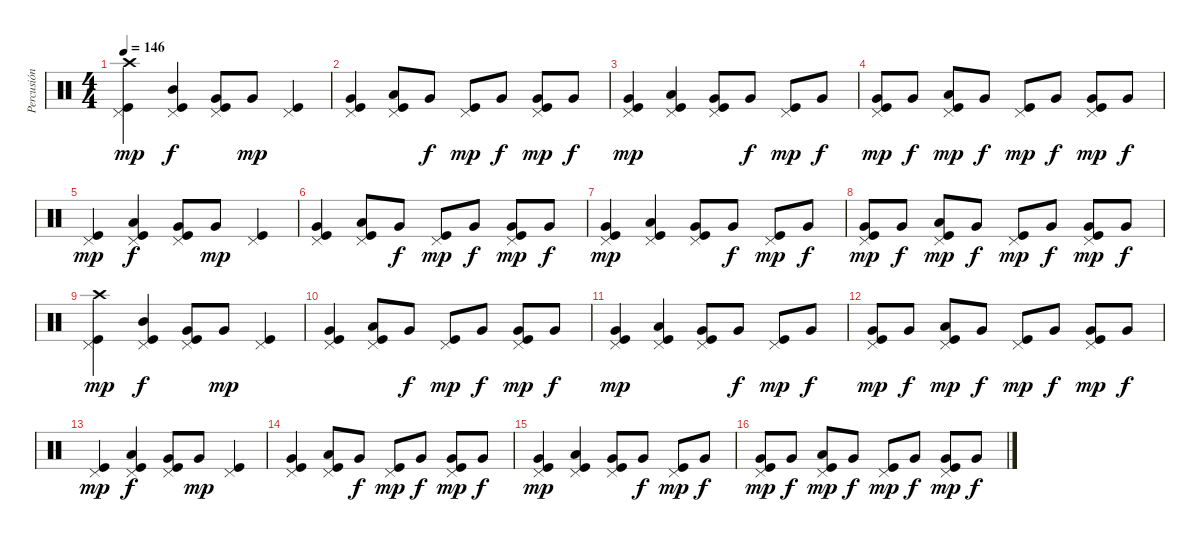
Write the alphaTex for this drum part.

\track ("Percusión" "Percusión") {instrument percussion}
\staff {score}
\articulation defaults
\ts (4 4)
\tempo 146
\clef neutral
\ks c
("Crash high (hit)" "Pedal Hi-Hat (hit)" "Kick (hit)").4{dy mp} ("Pedal Hi-Hat (hit)" "Mid Tom (hit)" "Kick (hit)").4{dy f} ("Pedal Hi-Hat (hit)" "Very Low Tom (hit)" "Kick (hit)").8 "Very Low Tom (hit)".8{dy mp} ("Pedal Hi-Hat (hit)" "Kick (hit)").4 |
("Pedal Hi-Hat (hit)" "Very Low Tom (hit)" "Kick (hit)").4 ("Pedal Hi-Hat (hit)" "Low Tom (hit)" "Kick (hit)").8 "Very Low Tom (hit)".8{dy f} ("Pedal Hi-Hat (hit)" "Kick (hit)").8{dy mp} "Very Low Tom (hit)".8{dy f} ("Pedal Hi-Hat (hit)" "Very Low Tom (hit)" "Kick (hit)").8{dy mp} "Very Low Tom (hit)".8{dy f} |
("Pedal Hi-Hat (hit)" "Very Low Tom (hit)" "Kick (hit)").4{dy mp} ("Pedal Hi-Hat (hit)" "Low Tom (hit)" "Kick (hit)").4 ("Pedal Hi-Hat (hit)" "Very Low Tom (hit)" "Kick (hit)").8 "Very Low Tom (hit)".8{dy f} ("Pedal Hi-Hat (hit)" "Kick (hit)").8{dy mp} "Very Low Tom (hit)".8{dy f} |
("Pedal Hi-Hat (hit)" "Very Low Tom (hit)" "Kick (hit)").8{dy mp} "Very Low Tom (hit)".8{dy f} ("Pedal Hi-Hat (hit)" "Low Tom (hit)" "Kick (hit)").8{dy mp} "Very Low Tom (hit)".8{dy f} ("Pedal Hi-Hat (hit)" "Kick (hit)").8{dy mp} "Very Low Tom (hit)".8{dy f} ("Pedal Hi-Hat (hit)" "Very Low Tom (hit)" "Kick (hit)").8{dy mp} "Very Low Tom (hit)".8{dy f} |
("Pedal Hi-Hat (hit)" "Kick (hit)").4{dy mp} ("Pedal Hi-Hat (hit)" "Low Tom (hit)" "Kick (hit)").4{dy f} ("Pedal Hi-Hat (hit)" "Very Low Tom (hit)" "Kick (hit)").8 "Very Low Tom (hit)".8{dy mp} ("Pedal Hi-Hat (hit)" "Kick (hit)").4 |
("Pedal Hi-Hat (hit)" "Very Low Tom (hit)" "Kick (hit)").4 ("Pedal Hi-Hat (hit)" "Low Tom (hit)" "Kick (hit)").8 "Very Low Tom (hit)".8{dy f} ("Pedal Hi-Hat (hit)" "Kick (hit)").8{dy mp} "Very Low Tom (hit)".8{dy f} ("Pedal Hi-Hat (hit)" "Very Low Tom (hit)" "Kick (hit)").8{dy mp} "Very Low Tom (hit)".8{dy f} |
("Pedal Hi-Hat (hit)" "Very Low Tom (hit)" "Kick (hit)").4{dy mp} ("Pedal Hi-Hat (hit)" "Low Tom (hit)" "Kick (hit)").4 ("Pedal Hi-Hat (hit)" "Very Low Tom (hit)" "Kick (hit)").8 "Very Low Tom (hit)".8{dy f} ("Pedal Hi-Hat (hit)" "Kick (hit)").8{dy mp} "Very Low Tom (hit)".8{dy f} |
("Pedal Hi-Hat (hit)" "Very Low Tom (hit)" "Kick (hit)").8{dy mp} "Very Low Tom (hit)".8{dy f} ("Pedal Hi-Hat (hit)" "Low Tom (hit)" "Kick (hit)").8{dy mp} "Very Low Tom (hit)".8{dy f} ("Pedal Hi-Hat (hit)" "Kick (hit)").8{dy mp} "Very Low Tom (hit)".8{dy f} ("Pedal Hi-Hat (hit)" "Very Low Tom (hit)" "Kick (hit)").8{dy mp} "Very Low Tom (hit)".8{dy f} |
("Crash high (hit)" "Pedal Hi-Hat (hit)" "Kick (hit)").4{dy mp} ("Pedal Hi-Hat (hit)" "Mid Tom (hit)" "Kick (hit)").4{dy f} ("Pedal Hi-Hat (hit)" "Very Low Tom (hit)" "Kick (hit)").8 "Very Low Tom (hit)".8{dy mp} ("Pedal Hi-Hat (hit)" "Kick (hit)").4 |
("Pedal Hi-Hat (hit)" "Very Low Tom (hit)" "Kick (hit)").4 ("Pedal Hi-Hat (hit)" "Low Tom (hit)" "Kick (hit)").8 "Very Low Tom (hit)".8{dy f} ("Pedal Hi-Hat (hit)" "Kick (hit)").8{dy mp} "Very Low Tom (hit)".8{dy f} ("Pedal Hi-Hat (hit)" "Very Low Tom (hit)" "Kick (hit)").8{dy mp} "Very Low Tom (hit)".8{dy f} |
("Pedal Hi-Hat (hit)" "Very Low Tom (hit)" "Kick (hit)").4{dy mp} ("Pedal Hi-Hat (hit)" "Low Tom (hit)" "Kick (hit)").4 ("Pedal Hi-Hat (hit)" "Very Low Tom (hit)" "Kick (hit)").8 "Very Low Tom (hit)".8{dy f} ("Pedal Hi-Hat (hit)" "Kick (hit)").8{dy mp} "Very Low Tom (hit)".8{dy f} |
("Pedal Hi-Hat (hit)" "Very Low Tom (hit)" "Kick (hit)").8{dy mp} "Very Low Tom (hit)".8{dy f} ("Pedal Hi-Hat (hit)" "Low Tom (hit)" "Kick (hit)").8{dy mp} "Very Low Tom (hit)".8{dy f} ("Pedal Hi-Hat (hit)" "Kick (hit)").8{dy mp} "Very Low Tom (hit)".8{dy f} ("Pedal Hi-Hat (hit)" "Very Low Tom (hit)" "Kick (hit)").8{dy mp} "Very Low Tom (hit)".8{dy f} |
("Pedal Hi-Hat (hit)" "Kick (hit)").4{dy mp} ("Pedal Hi-Hat (hit)" "Low Tom (hit)" "Kick (hit)").4{dy f} ("Pedal Hi-Hat (hit)" "Very Low Tom (hit)" "Kick (hit)").8 "Very Low Tom (hit)".8{dy mp} ("Pedal Hi-Hat (hit)" "Kick (hit)").4 |
("Pedal Hi-Hat (hit)" "Very Low Tom (hit)" "Kick (hit)").4 ("Pedal Hi-Hat (hit)" "Low Tom (hit)" "Kick (hit)").8 "Very Low Tom (hit)".8{dy f} ("Pedal Hi-Hat (hit)" "Kick (hit)").8{dy mp} "Very Low Tom (hit)".8{dy f} ("Pedal Hi-Hat (hit)" "Very Low Tom (hit)" "Kick (hit)").8{dy mp} "Very Low Tom (hit)".8{dy f} |
("Pedal Hi-Hat (hit)" "Very Low Tom (hit)" "Kick (hit)").4{dy mp} ("Pedal Hi-Hat (hit)" "Low Tom (hit)" "Kick (hit)").4 ("Pedal Hi-Hat (hit)" "Very Low Tom (hit)" "Kick (hit)").8 "Very Low Tom (hit)".8{dy f} ("Pedal Hi-Hat (hit)" "Kick (hit)").8{dy mp} "Very Low Tom (hit)".8{dy f} |
("Pedal Hi-Hat (hit)" "Very Low Tom (hit)" "Kick (hit)").8{dy mp} "Very Low Tom (hit)".8{dy f} ("Pedal Hi-Hat (hit)" "Low Tom (hit)" "Kick (hit)").8{dy mp} "Very Low Tom (hit)".8{dy f} ("Pedal Hi-Hat (hit)" "Kick (hit)").8{dy mp} "Very Low Tom (hit)".8{dy f} ("Pedal Hi-Hat (hit)" "Very Low Tom (hit)" "Kick (hit)").8{dy mp} "Very Low Tom (hit)".8{dy f}
